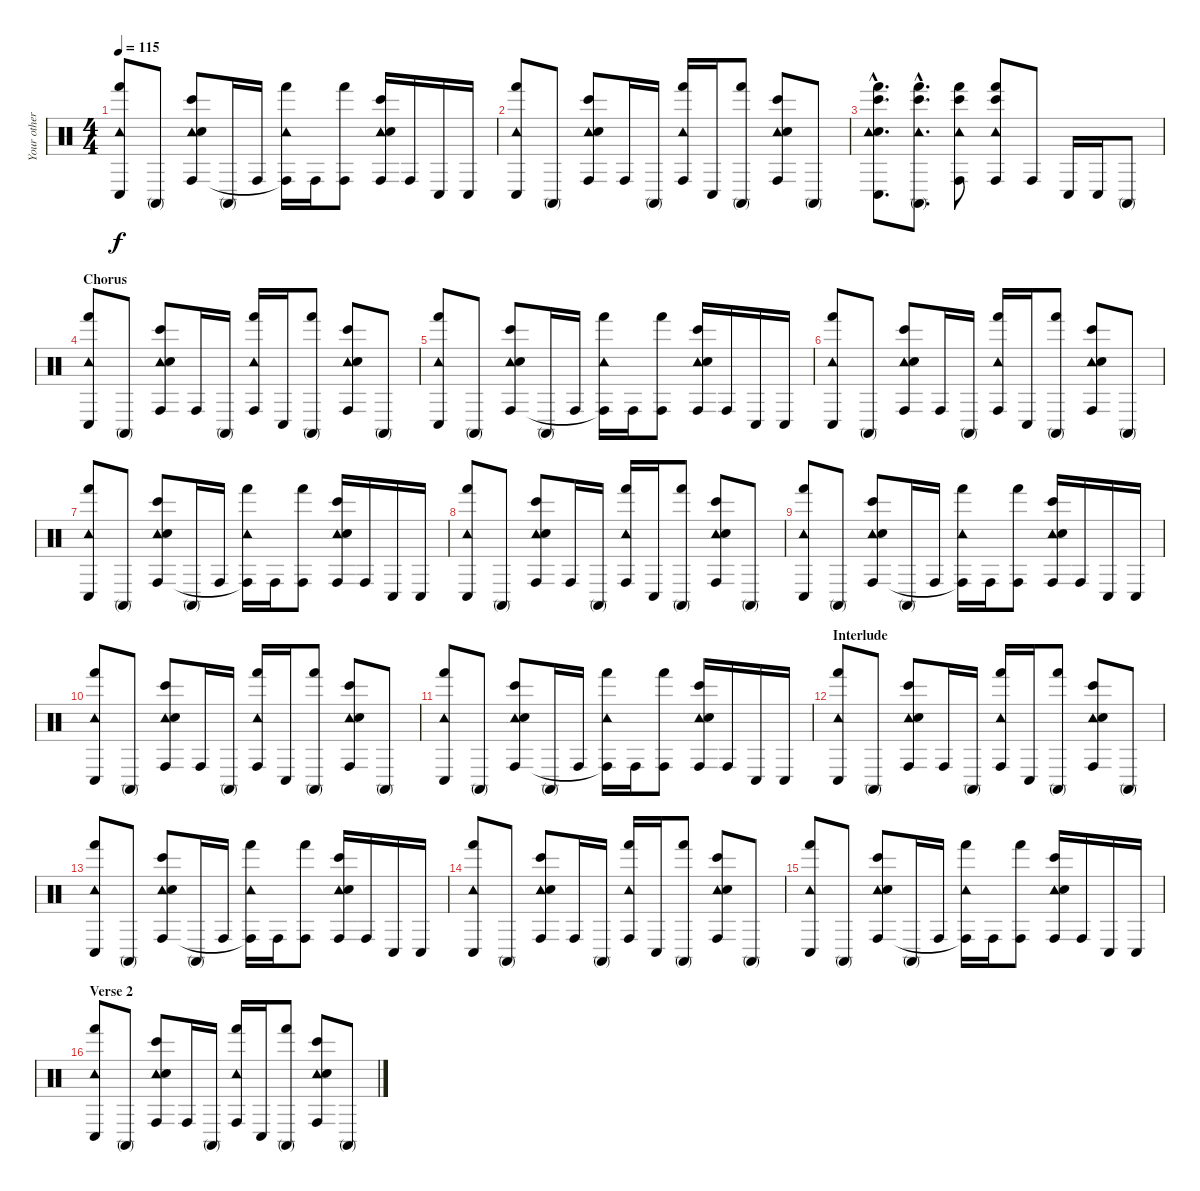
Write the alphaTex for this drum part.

\track ("Your other Friends giving you the Beat" "Your other") {instrument percussion}
\staff {score}
\articulation defaults
\ts (4 4)
\tempo 115
\clef neutral
\ks c
("Tambourine (hit)" "Conga low (hit)" "Hand (hit)").8{dy f} "Conga high (mute)".8 ("Tambourine (hit)" "Conga high (hit)" "Hand Clap (hit)" "Bongo High (hit)").8 "Conga high (mute)".16 "Conga high (hit)".16 ("Tambourine (hit)" "Conga high (hit)"{t} "Hand (hit)").16 "Conga high (hit)".16 ("Conga high (hit)" "Hand (hit)").8 ("Tambourine (hit)" "Conga high (hit)" "Hand Clap (hit)" "Bongo High (hit)").16 "Conga high (hit)".16 "Conga low (hit)".16 "Conga low (hit)".16 |
("Tambourine (hit)" "Conga low (hit)" "Hand (hit)").8 "Conga high (mute)".8 ("Tambourine (hit)" "Conga high (hit)" "Hand Clap (hit)" "Bongo High (hit)").8 "Conga high (hit)".16 "Conga high (mute)".16 ("Tambourine (hit)" "Conga high (hit)" "Hand (hit)").16 "Conga low (hit)".16 ("Conga high (mute)" "Hand (hit)").8 ("Tambourine (hit)" "Conga high (hit)" "Hand Clap (hit)" "Bongo High (hit)").8 "Conga high (mute)".8 |
("Hand Clap (hit)"{hac} "Tambourine (hit)"{hac} "Conga low (hit)"{hac} "Hand (hit)"{hac} "Bongo High (hit)"{hac}).8{d} ("Tambourine (hit)"{hac} "Conga high (mute)"{hac} "Hand (hit)"{hac} "Bongo High (hit)"{hac}).8{d} ("Tambourine (hit)" "Conga high (hit)" "Hand (hit)" "Bongo High (hit)").8 ("Tambourine (hit)" "Conga high (hit)" "Hand (hit)" "Bongo High (hit)").8 "Conga high (hit)".8 "Conga low (hit)".16 "Conga low (hit)".16 "Conga high (mute)".8 |
\section ("" "Chorus")
("Tambourine (hit)" "Conga low (hit)" "Hand (hit)").8 "Conga high (mute)".8 ("Tambourine (hit)" "Conga high (hit)" "Hand Clap (hit)" "Bongo High (hit)").8 "Conga high (hit)".16 "Conga high (mute)".16 ("Tambourine (hit)" "Conga high (hit)" "Hand (hit)").16 "Conga low (hit)".16 ("Conga high (mute)" "Hand (hit)").8 ("Tambourine (hit)" "Conga high (hit)" "Hand Clap (hit)" "Bongo High (hit)").8 "Conga high (mute)".8 |
("Tambourine (hit)" "Conga low (hit)" "Hand (hit)").8 "Conga high (mute)".8 ("Tambourine (hit)" "Conga high (hit)" "Hand Clap (hit)" "Bongo High (hit)").8 "Conga high (mute)".16 "Conga high (hit)".16 ("Tambourine (hit)" "Conga high (hit)"{t} "Hand (hit)").16 "Conga high (hit)".16 ("Conga high (hit)" "Hand (hit)").8 ("Tambourine (hit)" "Conga high (hit)" "Hand Clap (hit)" "Bongo High (hit)").16 "Conga high (hit)".16 "Conga low (hit)".16 "Conga low (hit)".16 |
("Tambourine (hit)" "Conga low (hit)" "Hand (hit)").8 "Conga high (mute)".8 ("Tambourine (hit)" "Conga high (hit)" "Hand Clap (hit)" "Bongo High (hit)").8 "Conga high (hit)".16 "Conga high (mute)".16 ("Tambourine (hit)" "Conga high (hit)" "Hand (hit)").16 "Conga low (hit)".16 ("Conga high (mute)" "Hand (hit)").8 ("Tambourine (hit)" "Conga high (hit)" "Hand Clap (hit)" "Bongo High (hit)").8 "Conga high (mute)".8 |
("Tambourine (hit)" "Conga low (hit)" "Hand (hit)").8 "Conga high (mute)".8 ("Tambourine (hit)" "Conga high (hit)" "Hand Clap (hit)" "Bongo High (hit)").8 "Conga high (mute)".16 "Conga high (hit)".16 ("Tambourine (hit)" "Conga high (hit)"{t} "Hand (hit)").16 "Conga high (hit)".16 ("Conga high (hit)" "Hand (hit)").8 ("Tambourine (hit)" "Conga high (hit)" "Hand Clap (hit)" "Bongo High (hit)").16 "Conga high (hit)".16 "Conga low (hit)".16 "Conga low (hit)".16 |
("Tambourine (hit)" "Conga low (hit)" "Hand (hit)").8 "Conga high (mute)".8 ("Tambourine (hit)" "Conga high (hit)" "Hand Clap (hit)" "Bongo High (hit)").8 "Conga high (hit)".16 "Conga high (mute)".16 ("Tambourine (hit)" "Conga high (hit)" "Hand (hit)").16 "Conga low (hit)".16 ("Conga high (mute)" "Hand (hit)").8 ("Tambourine (hit)" "Conga high (hit)" "Hand Clap (hit)" "Bongo High (hit)").8 "Conga high (mute)".8 |
("Tambourine (hit)" "Conga low (hit)" "Hand (hit)").8 "Conga high (mute)".8 ("Tambourine (hit)" "Conga high (hit)" "Hand Clap (hit)" "Bongo High (hit)").8 "Conga high (mute)".16 "Conga high (hit)".16 ("Tambourine (hit)" "Conga high (hit)"{t} "Hand (hit)").16 "Conga high (hit)".16 ("Conga high (hit)" "Hand (hit)").8 ("Tambourine (hit)" "Conga high (hit)" "Hand Clap (hit)" "Bongo High (hit)").16 "Conga high (hit)".16 "Conga low (hit)".16 "Conga low (hit)".16 |
("Tambourine (hit)" "Conga low (hit)" "Hand (hit)").8 "Conga high (mute)".8 ("Tambourine (hit)" "Conga high (hit)" "Hand Clap (hit)" "Bongo High (hit)").8 "Conga high (hit)".16 "Conga high (mute)".16 ("Tambourine (hit)" "Conga high (hit)" "Hand (hit)").16 "Conga low (hit)".16 ("Conga high (mute)" "Hand (hit)").8 ("Tambourine (hit)" "Conga high (hit)" "Hand Clap (hit)" "Bongo High (hit)").8 "Conga high (mute)".8 |
("Tambourine (hit)" "Conga low (hit)" "Hand (hit)").8 "Conga high (mute)".8 ("Tambourine (hit)" "Conga high (hit)" "Hand Clap (hit)" "Bongo High (hit)").8 "Conga high (mute)".16 "Conga high (hit)".16 ("Tambourine (hit)" "Conga high (hit)"{t} "Hand (hit)").16 "Conga high (hit)".16 ("Conga high (hit)" "Hand (hit)").8 ("Tambourine (hit)" "Conga high (hit)" "Hand Clap (hit)" "Bongo High (hit)").16 "Conga high (hit)".16 "Conga low (hit)".16 "Conga low (hit)".16 |
\section ("" "Interlude")
("Tambourine (hit)" "Conga low (hit)" "Hand (hit)").8 "Conga high (mute)".8 ("Tambourine (hit)" "Conga high (hit)" "Hand Clap (hit)" "Bongo High (hit)").8 "Conga high (hit)".16 "Conga high (mute)".16 ("Tambourine (hit)" "Conga high (hit)" "Hand (hit)").16 "Conga low (hit)".16 ("Conga high (mute)" "Hand (hit)").8 ("Tambourine (hit)" "Conga high (hit)" "Hand Clap (hit)" "Bongo High (hit)").8 "Conga high (mute)".8 |
("Tambourine (hit)" "Conga low (hit)" "Hand (hit)").8 "Conga high (mute)".8 ("Tambourine (hit)" "Conga high (hit)" "Hand Clap (hit)" "Bongo High (hit)").8 "Conga high (mute)".16 "Conga high (hit)".16 ("Tambourine (hit)" "Conga high (hit)"{t} "Hand (hit)").16 "Conga high (hit)".16 ("Conga high (hit)" "Hand (hit)").8 ("Tambourine (hit)" "Conga high (hit)" "Hand Clap (hit)" "Bongo High (hit)").16 "Conga high (hit)".16 "Conga low (hit)".16 "Conga low (hit)".16 |
("Tambourine (hit)" "Conga low (hit)" "Hand (hit)").8 "Conga high (mute)".8 ("Tambourine (hit)" "Conga high (hit)" "Hand Clap (hit)" "Bongo High (hit)").8 "Conga high (hit)".16 "Conga high (mute)".16 ("Tambourine (hit)" "Conga high (hit)" "Hand (hit)").16 "Conga low (hit)".16 ("Conga high (mute)" "Hand (hit)").8 ("Tambourine (hit)" "Conga high (hit)" "Hand Clap (hit)" "Bongo High (hit)").8 "Conga high (mute)".8 |
("Tambourine (hit)" "Conga low (hit)" "Hand (hit)").8 "Conga high (mute)".8 ("Tambourine (hit)" "Conga high (hit)" "Hand Clap (hit)" "Bongo High (hit)").8 "Conga high (mute)".16 "Conga high (hit)".16 ("Tambourine (hit)" "Conga high (hit)"{t} "Hand (hit)").16 "Conga high (hit)".16 ("Conga high (hit)" "Hand (hit)").8 ("Tambourine (hit)" "Conga high (hit)" "Hand Clap (hit)" "Bongo High (hit)").16 "Conga high (hit)".16 "Conga low (hit)".16 "Conga low (hit)".16 |
\section ("" "Verse 2")
("Tambourine (hit)" "Conga low (hit)" "Hand (hit)").8 "Conga high (mute)".8 ("Tambourine (hit)" "Conga high (hit)" "Hand Clap (hit)" "Bongo High (hit)").8 "Conga high (hit)".16 "Conga high (mute)".16 ("Tambourine (hit)" "Conga high (hit)" "Hand (hit)").16 "Conga low (hit)".16 ("Conga high (mute)" "Hand (hit)").8 ("Tambourine (hit)" "Conga high (hit)" "Hand Clap (hit)" "Bongo High (hit)").8 "Conga high (mute)".8
